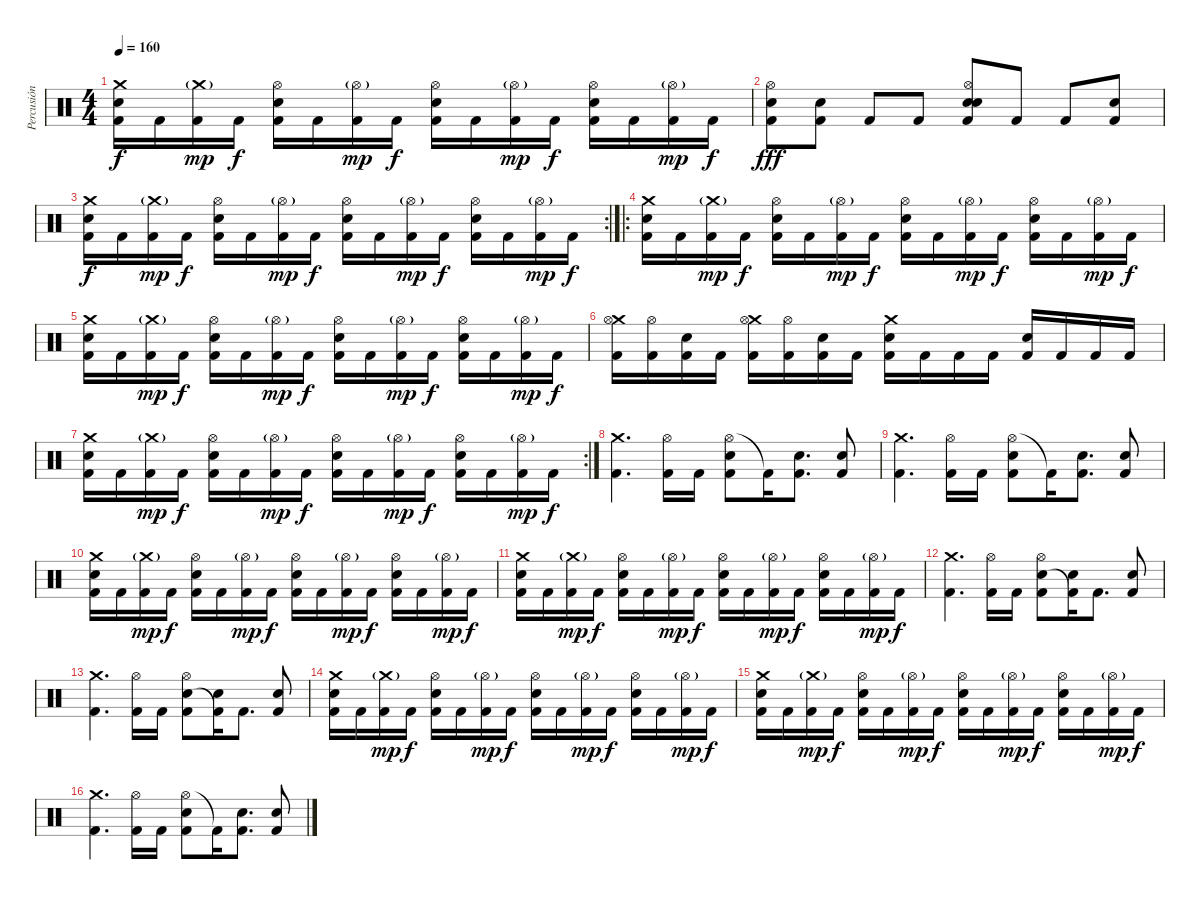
\track ("Percusión" "Percusión") {instrument percussion}
\staff {score}
\articulation defaults
\ts (4 4)
\tempo 160
\clef neutral
\ks c
("Crash medium (hit)" "Electric Snare (hit)" "Kick (hit) 2").16{dy f} "Kick (hit) 2".16 ("Crash medium (hit)"{g} "Kick (hit) 2").16{dy mp} "Kick (hit) 2".16{dy f} ("Hi-Hat (open)" "Electric Snare (hit)" "Kick (hit) 2").16 "Kick (hit) 2".16 ("Hi-Hat (open)"{g} "Kick (hit) 2").16{dy mp} "Kick (hit) 2".16{dy f} ("Hi-Hat (open)" "Electric Snare (hit)" "Kick (hit) 2").16 "Kick (hit) 2".16 ("Hi-Hat (open)"{g} "Kick (hit) 2").16{dy mp} "Kick (hit) 2".16{dy f} ("Hi-Hat (open)" "Electric Snare (hit)" "Kick (hit) 2").16 "Kick (hit) 2".16 ("Hi-Hat (open)"{g} "Kick (hit) 2").16{dy mp} "Kick (hit) 2".16{dy f} |
("Electric Snare (hit)" "Hi-Hat (open)" "Kick (hit) 2").8{dy fff} ("Snare (hit) 2" "Kick (hit) 2").8 "Kick (hit) 2".8 "Kick (hit) 2".8 ("Electric Snare (hit)" "Hi-Hat (open)" "Snare (hit) 2" "Kick (hit) 2").8 "Kick (hit) 2".8 "Kick (hit) 2".8 ("Snare (hit) 2" "Kick (hit) 2").8 |
\rc 2
("Crash medium (hit)" "Electric Snare (hit)" "Kick (hit) 2").16{dy f} "Kick (hit) 2".16 ("Crash medium (hit)"{g} "Kick (hit) 2").16{dy mp} "Kick (hit) 2".16{dy f} ("Hi-Hat (open)" "Electric Snare (hit)" "Kick (hit) 2").16 "Kick (hit) 2".16 ("Hi-Hat (open)"{g} "Kick (hit) 2").16{dy mp} "Kick (hit) 2".16{dy f} ("Hi-Hat (open)" "Electric Snare (hit)" "Kick (hit) 2").16 "Kick (hit) 2".16 ("Hi-Hat (open)"{g} "Kick (hit) 2").16{dy mp} "Kick (hit) 2".16{dy f} ("Hi-Hat (open)" "Electric Snare (hit)" "Kick (hit) 2").16 "Kick (hit) 2".16 ("Hi-Hat (open)"{g} "Kick (hit) 2").16{dy mp} "Kick (hit) 2".16{dy f} |
\ro
("Crash medium (hit)" "Electric Snare (hit)" "Kick (hit) 2").16 "Kick (hit) 2".16 ("Crash medium (hit)"{g} "Kick (hit) 2").16{dy mp} "Kick (hit) 2".16{dy f} ("Hi-Hat (open)" "Electric Snare (hit)" "Kick (hit) 2").16 "Kick (hit) 2".16 ("Hi-Hat (open)"{g} "Kick (hit) 2").16{dy mp} "Kick (hit) 2".16{dy f} ("Hi-Hat (open)" "Electric Snare (hit)" "Kick (hit) 2").16 "Kick (hit) 2".16 ("Hi-Hat (open)"{g} "Kick (hit) 2").16{dy mp} "Kick (hit) 2".16{dy f} ("Hi-Hat (open)" "Electric Snare (hit)" "Kick (hit) 2").16 "Kick (hit) 2".16 ("Hi-Hat (open)"{g} "Kick (hit) 2").16{dy mp} "Kick (hit) 2".16{dy f} |
("Crash medium (hit)" "Electric Snare (hit)" "Kick (hit) 2").16 "Kick (hit) 2".16 ("Crash medium (hit)"{g} "Kick (hit) 2").16{dy mp} "Kick (hit) 2".16{dy f} ("Hi-Hat (open)" "Electric Snare (hit)" "Kick (hit) 2").16 "Kick (hit) 2".16 ("Hi-Hat (open)"{g} "Kick (hit) 2").16{dy mp} "Kick (hit) 2".16{dy f} ("Hi-Hat (open)" "Electric Snare (hit)" "Kick (hit) 2").16 "Kick (hit) 2".16 ("Hi-Hat (open)"{g} "Kick (hit) 2").16{dy mp} "Kick (hit) 2".16{dy f} ("Hi-Hat (open)" "Electric Snare (hit)" "Kick (hit) 2").16 "Kick (hit) 2".16 ("Hi-Hat (open)"{g} "Kick (hit) 2").16{dy mp} "Kick (hit) 2".16{dy f} |
("Crash medium (hit)" "Hi-Hat (open)" "Kick (hit) 2").16 ("Hi-Hat (open)" "Kick (hit) 2").16 ("Electric Snare (hit)" "Kick (hit) 2").16 "Kick (hit) 2".16 ("Crash medium (hit)" "Hi-Hat (open)" "Kick (hit) 2").16 ("Hi-Hat (open)" "Kick (hit) 2").16 ("Electric Snare (hit)" "Kick (hit) 2").16 "Kick (hit) 2".16 ("Crash medium (hit)" "Electric Snare (hit)" "Kick (hit) 2").16 "Kick (hit) 2".16 "Kick (hit) 2".16 "Kick (hit) 2".16 ("Snare (hit) 2" "Kick (hit) 2").16 "Kick (hit) 2".16 "Kick (hit) 2".16 "Kick (hit) 2".16 |
\rc 2
("Crash medium (hit)" "Electric Snare (hit)" "Kick (hit) 2").16 "Kick (hit) 2".16 ("Crash medium (hit)"{g} "Kick (hit) 2").16{dy mp} "Kick (hit) 2".16{dy f} ("Hi-Hat (open)" "Electric Snare (hit)" "Kick (hit) 2").16 "Kick (hit) 2".16 ("Hi-Hat (open)"{g} "Kick (hit) 2").16{dy mp} "Kick (hit) 2".16{dy f} ("Hi-Hat (open)" "Electric Snare (hit)" "Kick (hit) 2").16 "Kick (hit) 2".16 ("Hi-Hat (open)"{g} "Kick (hit) 2").16{dy mp} "Kick (hit) 2".16{dy f} ("Hi-Hat (open)" "Electric Snare (hit)" "Kick (hit) 2").16 "Kick (hit) 2".16 ("Hi-Hat (open)"{g} "Kick (hit) 2").16{dy mp} "Kick (hit) 2".16{dy f} |
("Crash medium (hit)" "Kick (hit) 2").4{d} ("Hi-Hat (open)" "Kick (hit) 2").16 "Kick (hit) 2".16 ("Hi-Hat (open)" "Electric Snare (hit)" "Kick (hit) 2").8 "Kick (hit) 2"{t}.16 ("Snare (hit) 2" "Kick (hit) 2").8{d} ("Snare (hit) 2" "Kick (hit) 2").8 |
("Crash medium (hit)" "Kick (hit) 2").4{d} ("Hi-Hat (open)" "Kick (hit) 2").16 "Kick (hit) 2".16 ("Hi-Hat (open)" "Electric Snare (hit)" "Kick (hit) 2").8 "Kick (hit) 2"{t}.16 ("Snare (hit) 2" "Kick (hit) 2").8{d} ("Snare (hit) 2" "Kick (hit) 2").8 |
("Crash medium (hit)" "Electric Snare (hit)" "Kick (hit) 2").16 "Kick (hit) 2".16 ("Crash medium (hit)"{g} "Kick (hit) 2").16{dy mp} "Kick (hit) 2".16{dy f} ("Hi-Hat (open)" "Electric Snare (hit)" "Kick (hit) 2").16 "Kick (hit) 2".16 ("Hi-Hat (open)"{g} "Kick (hit) 2").16{dy mp} "Kick (hit) 2".16{dy f} ("Hi-Hat (open)" "Electric Snare (hit)" "Kick (hit) 2").16 "Kick (hit) 2".16 ("Hi-Hat (open)"{g} "Kick (hit) 2").16{dy mp} "Kick (hit) 2".16{dy f} ("Hi-Hat (open)" "Electric Snare (hit)" "Kick (hit) 2").16 "Kick (hit) 2".16 ("Hi-Hat (open)"{g} "Kick (hit) 2").16{dy mp} "Kick (hit) 2".16{dy f} |
("Crash medium (hit)" "Electric Snare (hit)" "Kick (hit) 2").16 "Kick (hit) 2".16 ("Crash medium (hit)"{g} "Kick (hit) 2").16{dy mp} "Kick (hit) 2".16{dy f} ("Hi-Hat (open)" "Electric Snare (hit)" "Kick (hit) 2").16 "Kick (hit) 2".16 ("Hi-Hat (open)"{g} "Kick (hit) 2").16{dy mp} "Kick (hit) 2".16{dy f} ("Hi-Hat (open)" "Electric Snare (hit)" "Kick (hit) 2").16 "Kick (hit) 2".16 ("Hi-Hat (open)"{g} "Kick (hit) 2").16{dy mp} "Kick (hit) 2".16{dy f} ("Hi-Hat (open)" "Electric Snare (hit)" "Kick (hit) 2").16 "Kick (hit) 2".16 ("Hi-Hat (open)"{g} "Kick (hit) 2").16{dy mp} "Kick (hit) 2".16{dy f} |
("Crash medium (hit)" "Kick (hit) 2").4{d} ("Hi-Hat (open)" "Kick (hit) 2").16 "Kick (hit) 2".16 ("Hi-Hat (open)" "Electric Snare (hit)" "Kick (hit) 2").8 ("Electric Snare (hit)" "Kick (hit) 2"{t}).16 "Kick (hit) 2".8{d} ("Snare (hit) 2" "Kick (hit) 2").8 |
("Crash medium (hit)" "Kick (hit) 2").4{d} ("Hi-Hat (open)" "Kick (hit) 2").16 "Kick (hit) 2".16 ("Hi-Hat (open)" "Electric Snare (hit)" "Kick (hit) 2").8 ("Electric Snare (hit)" "Kick (hit) 2"{t}).16 "Kick (hit) 2".8{d} ("Snare (hit) 2" "Kick (hit) 2").8 |
("Crash medium (hit)" "Electric Snare (hit)" "Kick (hit) 2").16 "Kick (hit) 2".16 ("Crash medium (hit)"{g} "Kick (hit) 2").16{dy mp} "Kick (hit) 2".16{dy f} ("Hi-Hat (open)" "Electric Snare (hit)" "Kick (hit) 2").16 "Kick (hit) 2".16 ("Hi-Hat (open)"{g} "Kick (hit) 2").16{dy mp} "Kick (hit) 2".16{dy f} ("Hi-Hat (open)" "Electric Snare (hit)" "Kick (hit) 2").16 "Kick (hit) 2".16 ("Hi-Hat (open)"{g} "Kick (hit) 2").16{dy mp} "Kick (hit) 2".16{dy f} ("Hi-Hat (open)" "Electric Snare (hit)" "Kick (hit) 2").16 "Kick (hit) 2".16 ("Hi-Hat (open)"{g} "Kick (hit) 2").16{dy mp} "Kick (hit) 2".16{dy f} |
("Crash medium (hit)" "Electric Snare (hit)" "Kick (hit) 2").16 "Kick (hit) 2".16 ("Crash medium (hit)"{g} "Kick (hit) 2").16{dy mp} "Kick (hit) 2".16{dy f} ("Hi-Hat (open)" "Electric Snare (hit)" "Kick (hit) 2").16 "Kick (hit) 2".16 ("Hi-Hat (open)"{g} "Kick (hit) 2").16{dy mp} "Kick (hit) 2".16{dy f} ("Hi-Hat (open)" "Electric Snare (hit)" "Kick (hit) 2").16 "Kick (hit) 2".16 ("Hi-Hat (open)"{g} "Kick (hit) 2").16{dy mp} "Kick (hit) 2".16{dy f} ("Hi-Hat (open)" "Electric Snare (hit)" "Kick (hit) 2").16 "Kick (hit) 2".16 ("Hi-Hat (open)"{g} "Kick (hit) 2").16{dy mp} "Kick (hit) 2".16{dy f} |
("Crash medium (hit)" "Kick (hit) 2").4{d} ("Hi-Hat (open)" "Kick (hit) 2").16 "Kick (hit) 2".16 ("Hi-Hat (open)" "Electric Snare (hit)" "Kick (hit) 2").8 "Kick (hit) 2"{t}.16 ("Snare (hit) 2" "Kick (hit) 2").8{d} ("Snare (hit) 2" "Kick (hit) 2").8
